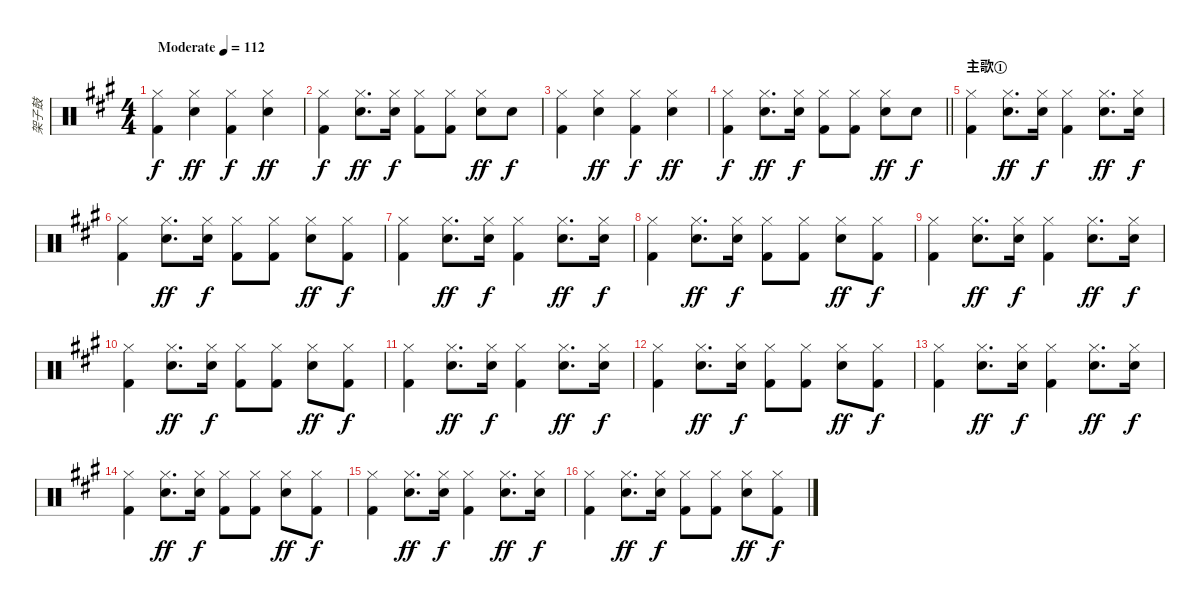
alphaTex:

\track ("架子鼓" "架子鼓") {instrument percussion}
\staff {score}
\articulation defaults
\ts (4 4)
\tempo (112 "Moderate")
\clef neutral
\ks a
("Hi-Hat (closed)" "Kick (hit) 2").4{dy f} ("Hi-Hat (closed)" "Electric Snare (hit)").4{dy ff} ("Hi-Hat (closed)" "Kick (hit) 2").4{dy f} ("Hi-Hat (closed)" "Electric Snare (hit)").4{dy ff} |
("Hi-Hat (closed)" "Kick (hit) 2").4{dy f} ("Hi-Hat (closed)" "Electric Snare (hit)").8{d dy ff} ("Hi-Hat (closed)" "Electric Snare (hit)").16{dy f} ("Hi-Hat (closed)" "Kick (hit) 2").8 ("Hi-Hat (closed)" "Kick (hit) 2").8 ("Hi-Hat (closed)" "Electric Snare (hit)").8{dy ff} "Electric Snare (hit)".8{dy f} |
("Hi-Hat (closed)" "Kick (hit) 2").4 ("Hi-Hat (closed)" "Electric Snare (hit)").4{dy ff} ("Hi-Hat (closed)" "Kick (hit) 2").4{dy f} ("Hi-Hat (closed)" "Electric Snare (hit)").4{dy ff} |
\barLineRight lightlight
("Hi-Hat (closed)" "Kick (hit) 2").4{dy f} ("Hi-Hat (closed)" "Electric Snare (hit)").8{d dy ff} ("Hi-Hat (closed)" "Electric Snare (hit)").16{dy f} ("Hi-Hat (closed)" "Kick (hit) 2").8 ("Hi-Hat (closed)" "Kick (hit) 2").8 ("Hi-Hat (closed)" "Electric Snare (hit)").8{dy ff} "Electric Snare (hit)".8{dy f} |
\section ("" "主歌①")
("Hi-Hat (closed)" "Kick (hit) 2").4 ("Hi-Hat (closed)" "Electric Snare (hit)").8{d dy ff} ("Hi-Hat (closed)" "Electric Snare (hit)").16{dy f} ("Hi-Hat (closed)" "Kick (hit) 2").4 ("Hi-Hat (closed)" "Electric Snare (hit)").8{d dy ff} ("Hi-Hat (closed)" "Electric Snare (hit)").16{dy f} |
("Hi-Hat (closed)" "Kick (hit) 2").4 ("Hi-Hat (closed)" "Electric Snare (hit)").8{d dy ff} ("Hi-Hat (closed)" "Electric Snare (hit)").16{dy f} ("Hi-Hat (closed)" "Kick (hit) 2").8 ("Hi-Hat (closed)" "Kick (hit) 2").8 ("Hi-Hat (closed)" "Electric Snare (hit)").8{dy ff} ("Hi-Hat (closed)" "Kick (hit) 2").8{dy f} |
("Hi-Hat (closed)" "Kick (hit) 2").4 ("Hi-Hat (closed)" "Electric Snare (hit)").8{d dy ff} ("Hi-Hat (closed)" "Electric Snare (hit)").16{dy f} ("Hi-Hat (closed)" "Kick (hit) 2").4 ("Hi-Hat (closed)" "Electric Snare (hit)").8{d dy ff} ("Hi-Hat (closed)" "Electric Snare (hit)").16{dy f} |
("Hi-Hat (closed)" "Kick (hit) 2").4 ("Hi-Hat (closed)" "Electric Snare (hit)").8{d dy ff} ("Hi-Hat (closed)" "Electric Snare (hit)").16{dy f} ("Hi-Hat (closed)" "Kick (hit) 2").8 ("Hi-Hat (closed)" "Kick (hit) 2").8 ("Hi-Hat (closed)" "Electric Snare (hit)").8{dy ff} ("Hi-Hat (closed)" "Kick (hit) 2").8{dy f} |
("Hi-Hat (closed)" "Kick (hit) 2").4 ("Hi-Hat (closed)" "Electric Snare (hit)").8{d dy ff} ("Hi-Hat (closed)" "Electric Snare (hit)").16{dy f} ("Hi-Hat (closed)" "Kick (hit) 2").4 ("Hi-Hat (closed)" "Electric Snare (hit)").8{d dy ff} ("Hi-Hat (closed)" "Electric Snare (hit)").16{dy f} |
("Hi-Hat (closed)" "Kick (hit) 2").4 ("Hi-Hat (closed)" "Electric Snare (hit)").8{d dy ff} ("Hi-Hat (closed)" "Electric Snare (hit)").16{dy f} ("Hi-Hat (closed)" "Kick (hit) 2").8 ("Hi-Hat (closed)" "Kick (hit) 2").8 ("Hi-Hat (closed)" "Electric Snare (hit)").8{dy ff} ("Hi-Hat (closed)" "Kick (hit) 2").8{dy f} |
("Hi-Hat (closed)" "Kick (hit) 2").4 ("Hi-Hat (closed)" "Electric Snare (hit)").8{d dy ff} ("Hi-Hat (closed)" "Electric Snare (hit)").16{dy f} ("Hi-Hat (closed)" "Kick (hit) 2").4 ("Hi-Hat (closed)" "Electric Snare (hit)").8{d dy ff} ("Hi-Hat (closed)" "Electric Snare (hit)").16{dy f} |
("Hi-Hat (closed)" "Kick (hit) 2").4 ("Hi-Hat (closed)" "Electric Snare (hit)").8{d dy ff} ("Hi-Hat (closed)" "Electric Snare (hit)").16{dy f} ("Hi-Hat (closed)" "Kick (hit) 2").8 ("Hi-Hat (closed)" "Kick (hit) 2").8 ("Hi-Hat (closed)" "Electric Snare (hit)").8{dy ff} ("Hi-Hat (closed)" "Kick (hit) 2").8{dy f} |
("Hi-Hat (closed)" "Kick (hit) 2").4 ("Hi-Hat (closed)" "Electric Snare (hit)").8{d dy ff} ("Hi-Hat (closed)" "Electric Snare (hit)").16{dy f} ("Hi-Hat (closed)" "Kick (hit) 2").4 ("Hi-Hat (closed)" "Electric Snare (hit)").8{d dy ff} ("Hi-Hat (closed)" "Electric Snare (hit)").16{dy f} |
("Hi-Hat (closed)" "Kick (hit) 2").4 ("Hi-Hat (closed)" "Electric Snare (hit)").8{d dy ff} ("Hi-Hat (closed)" "Electric Snare (hit)").16{dy f} ("Hi-Hat (closed)" "Kick (hit) 2").8 ("Hi-Hat (closed)" "Kick (hit) 2").8 ("Hi-Hat (closed)" "Electric Snare (hit)").8{dy ff} ("Hi-Hat (closed)" "Kick (hit) 2").8{dy f} |
("Hi-Hat (closed)" "Kick (hit) 2").4 ("Hi-Hat (closed)" "Electric Snare (hit)").8{d dy ff} ("Hi-Hat (closed)" "Electric Snare (hit)").16{dy f} ("Hi-Hat (closed)" "Kick (hit) 2").4 ("Hi-Hat (closed)" "Electric Snare (hit)").8{d dy ff} ("Hi-Hat (closed)" "Electric Snare (hit)").16{dy f} |
("Hi-Hat (closed)" "Kick (hit) 2").4 ("Hi-Hat (closed)" "Electric Snare (hit)").8{d dy ff} ("Hi-Hat (closed)" "Electric Snare (hit)").16{dy f} ("Hi-Hat (closed)" "Kick (hit) 2").8 ("Hi-Hat (closed)" "Kick (hit) 2").8 ("Hi-Hat (closed)" "Electric Snare (hit)").8{dy ff} ("Hi-Hat (closed)" "Kick (hit) 2").8{dy f}
